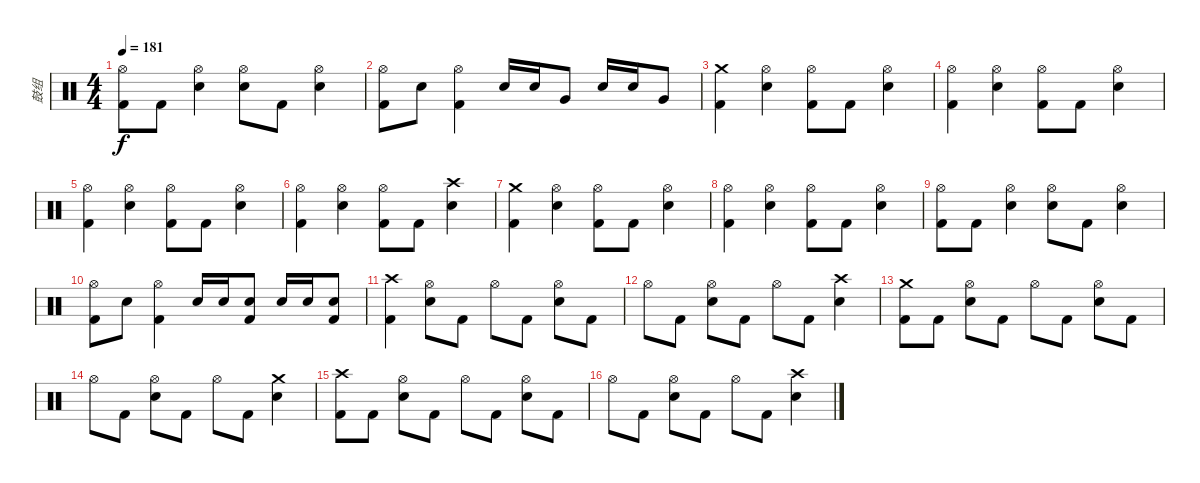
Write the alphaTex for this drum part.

\track ("鼓组" "鼓组") {instrument percussion}
\staff {score}
\articulation defaults
\ts (4 4)
\tempo 181
\clef neutral
\ks c
("Hi-Hat (open)" "Kick (hit) 2").8{dy f} "Kick (hit) 2".8 ("Hi-Hat (open)" "Snare (hit) 2").4 ("Hi-Hat (open)" "Snare (hit) 2").8 "Kick (hit) 2".8 ("Hi-Hat (open)" "Snare (hit) 2").4 |
("Hi-Hat (open)" "Kick (hit) 2").8 "Snare (hit) 2".8 ("Hi-Hat (open)" "Kick (hit) 2").4 "Snare (hit) 2".16 "Snare (hit) 2".16 "Very Low Tom (hit)".8 "Snare (hit) 2".16 "Snare (hit) 2".16 "Very Low Tom (hit)".8 |
("Crash medium (hit)" "Kick (hit) 2").4 ("Hi-Hat (open)" "Snare (hit) 2").4 ("Hi-Hat (open)" "Kick (hit) 2").8 "Kick (hit) 2".8 ("Hi-Hat (open)" "Snare (hit) 2").4 |
("Hi-Hat (open)" "Kick (hit) 2").4 ("Hi-Hat (open)" "Snare (hit) 2").4 ("Hi-Hat (open)" "Kick (hit) 2").8 "Kick (hit) 2".8 ("Hi-Hat (open)" "Snare (hit) 2").4 |
("Hi-Hat (open)" "Kick (hit) 2").4 ("Hi-Hat (open)" "Snare (hit) 2").4 ("Hi-Hat (open)" "Kick (hit) 2").8 "Kick (hit) 2".8 ("Hi-Hat (open)" "Snare (hit) 2").4 |
("Hi-Hat (open)" "Kick (hit) 2").4 ("Hi-Hat (open)" "Snare (hit) 2").4 ("Hi-Hat (open)" "Kick (hit) 2").8 "Kick (hit) 2".8 ("Crash high (hit)" "Snare (hit) 2").4 |
("Crash medium (hit)" "Kick (hit) 2").4 ("Hi-Hat (open)" "Snare (hit) 2").4 ("Hi-Hat (open)" "Kick (hit) 2").8 "Kick (hit) 2".8 ("Hi-Hat (open)" "Snare (hit) 2").4 |
("Hi-Hat (open)" "Kick (hit) 2").4 ("Hi-Hat (open)" "Snare (hit) 2").4 ("Hi-Hat (open)" "Kick (hit) 2").8 "Kick (hit) 2".8 ("Hi-Hat (open)" "Snare (hit) 2").4 |
("Hi-Hat (open)" "Kick (hit) 2").8 "Kick (hit) 2".8 ("Hi-Hat (open)" "Snare (hit) 2").4 ("Hi-Hat (open)" "Snare (hit) 2").8 "Kick (hit) 2".8 ("Hi-Hat (open)" "Snare (hit) 2").4 |
("Hi-Hat (open)" "Kick (hit) 2").8 "Snare (hit) 2".8 ("Hi-Hat (open)" "Kick (hit) 2").4 "Snare (hit) 2".16 "Snare (hit) 2".16 ("Snare (hit) 2" "Kick (hit) 2").8 "Snare (hit) 2".16 "Snare (hit) 2".16 ("Snare (hit) 2" "Kick (hit) 2").8 |
("Crash high (hit)" "Kick (hit) 2").4 ("Hi-Hat (open)" "Snare (hit) 2").8 "Kick (hit) 2".8 "Hi-Hat (open)".8 "Kick (hit) 2".8 ("Hi-Hat (open)" "Snare (hit) 2").8 "Kick (hit) 2".8 |
"Hi-Hat (open)".8 "Kick (hit) 2".8 ("Hi-Hat (open)" "Snare (hit) 2").8 "Kick (hit) 2".8 "Hi-Hat (open)".8 "Kick (hit) 2".8 ("Crash high (hit)" "Snare (hit) 2").4 |
("Crash medium (hit)" "Kick (hit) 2").8 "Kick (hit) 2".8 ("Hi-Hat (open)" "Snare (hit) 2").8 "Kick (hit) 2".8 "Hi-Hat (open)".8 "Kick (hit) 2".8 ("Hi-Hat (open)" "Snare (hit) 2").8 "Kick (hit) 2".8 |
"Hi-Hat (open)".8 "Kick (hit) 2".8 ("Hi-Hat (open)" "Snare (hit) 2").8 "Kick (hit) 2".8 "Hi-Hat (open)".8 "Kick (hit) 2".8 ("Crash medium (hit)" "Snare (hit) 2").4 |
("Crash high (hit)" "Kick (hit) 2").8 "Kick (hit) 2".8 ("Hi-Hat (open)" "Snare (hit) 2").8 "Kick (hit) 2".8 "Hi-Hat (open)".8 "Kick (hit) 2".8 ("Hi-Hat (open)" "Snare (hit) 2").8 "Kick (hit) 2".8 |
"Hi-Hat (open)".8 "Kick (hit) 2".8 ("Hi-Hat (open)" "Snare (hit) 2").8 "Kick (hit) 2".8 "Hi-Hat (open)".8 "Kick (hit) 2".8 ("Crash high (hit)" "Snare (hit) 2").4
